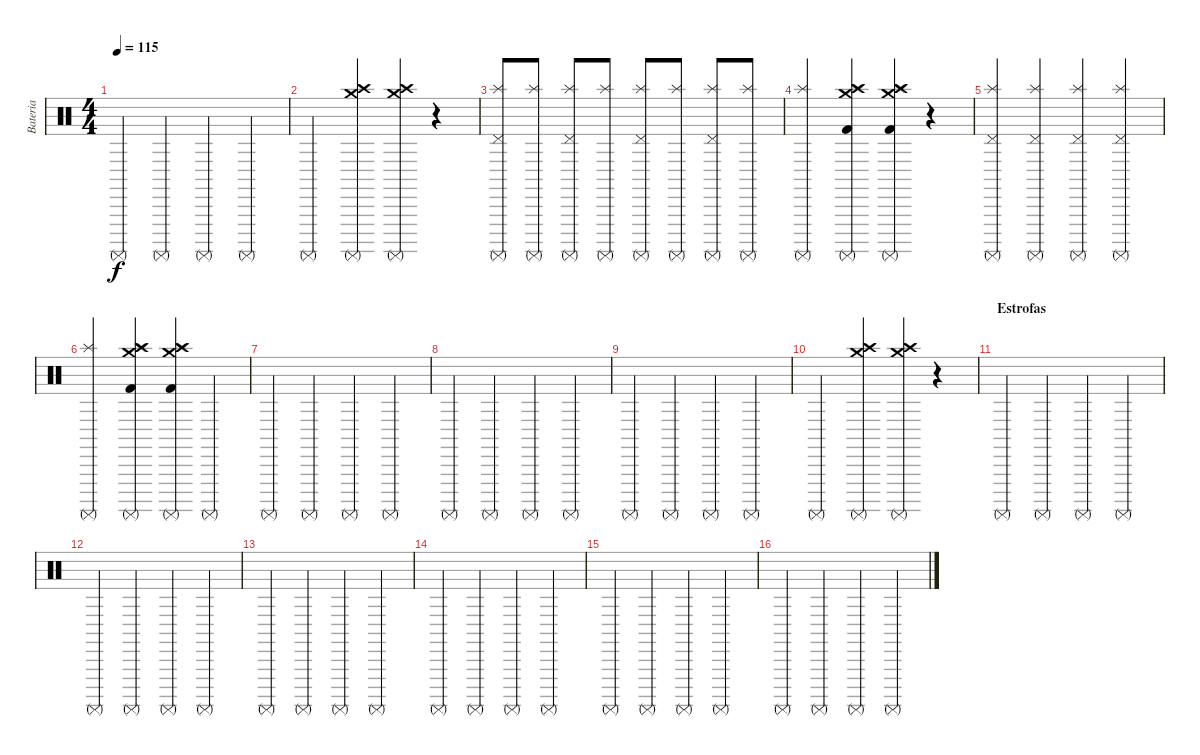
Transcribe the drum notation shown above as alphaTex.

\track ("Bateria" "Bateria") {instrument percussion}
\staff {score}
\articulation defaults
\ts (4 4)
\tempo 115
\clef neutral
\ks c "Surdo (mute)".4{dy f} "Surdo (mute)".4 "Surdo (mute)".4 "Surdo (mute)".4
|
"Surdo (mute)".4 ("Crash high (hit)" "Crash medium (hit)" "Surdo (mute)").4 ("Crash high (hit)" "Crash medium (hit)" "Surdo (mute)").4 r.4 |
("Pedal Hi-Hat (hit)" "Splash (hit)" "Surdo (mute)").8 ("Splash (hit)" "Surdo (mute)").8 ("Pedal Hi-Hat (hit)" "Splash (hit)" "Surdo (mute)").8 ("Splash (hit)" "Surdo (mute)").8 ("Pedal Hi-Hat (hit)" "Splash (hit)" "Surdo (mute)").8 ("Splash (hit)" "Surdo (mute)").8 ("Pedal Hi-Hat (hit)" "Splash (hit)" "Surdo (mute)").8 ("Splash (hit)" "Surdo (mute)").8 |
("Splash (hit)" "Surdo (mute)").4 ("Crash high (hit)" "Kick (hit) 2" "Crash medium (hit)" "Splash (hit)" "Surdo (mute)").4 ("Crash high (hit)" "Kick (hit) 2" "Crash medium (hit)" "Splash (hit)" "Surdo (mute)").4 r.4 |
("Pedal Hi-Hat (hit)" "Splash (hit)" "Surdo (mute)").4 ("Pedal Hi-Hat (hit)" "Splash (hit)" "Surdo (mute)").4 ("Pedal Hi-Hat (hit)" "Splash (hit)" "Surdo (mute)").4 ("Pedal Hi-Hat (hit)" "Splash (hit)" "Surdo (mute)").4 |
("Splash (hit)" "Surdo (mute)").4 ("Crash high (hit)" "Kick (hit) 2" "Crash medium (hit)" "Splash (hit)" "Surdo (mute)").4 ("Crash high (hit)" "Kick (hit) 2" "Crash medium (hit)" "Splash (hit)" "Surdo (mute)").4 "Surdo (mute)".4 |
"Surdo (mute)".4 "Surdo (mute)".4 "Surdo (mute)".4 "Surdo (mute)".4 |
"Surdo (mute)".4 "Surdo (mute)".4 "Surdo (mute)".4 "Surdo (mute)".4 |
"Surdo (mute)".4 "Surdo (mute)".4 "Surdo (mute)".4 "Surdo (mute)".4 |
"Surdo (mute)".4 ("Crash high (hit)" "Crash medium (hit)" "Surdo (mute)").4 ("Crash high (hit)" "Crash medium (hit)" "Surdo (mute)").4 r.4 |
\section ("" "Estrofas")
"Surdo (mute)".4 "Surdo (mute)".4 "Surdo (mute)".4 "Surdo (mute)".4 |
"Surdo (mute)".4 "Surdo (mute)".4 "Surdo (mute)".4 "Surdo (mute)".4 |
"Surdo (mute)".4 "Surdo (mute)".4 "Surdo (mute)".4 "Surdo (mute)".4 |
"Surdo (mute)".4 "Surdo (mute)".4 "Surdo (mute)".4 "Surdo (mute)".4 |
"Surdo (mute)".4 "Surdo (mute)".4 "Surdo (mute)".4 "Surdo (mute)".4 |
"Surdo (mute)".4 "Surdo (mute)".4 "Surdo (mute)".4 "Surdo (mute)".4
